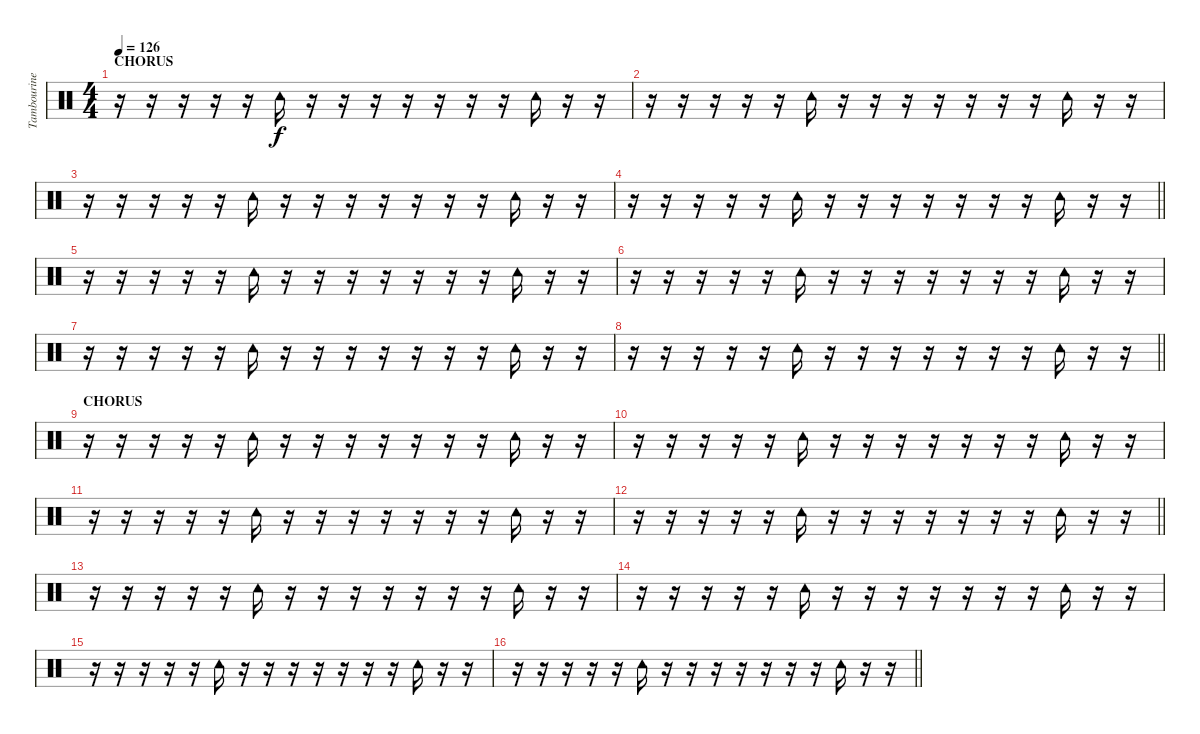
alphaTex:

\track ("Tambourine" "Tambourine") {instrument percussion}
\staff {score}
\articulation defaults
\ts (4 4)
\section ("" "CHORUS")
\tempo 126
\clef neutral
\ks c
r.16{dy f} r.16 r.16 r.16 r.16 "Tambourine (hit)".16 r.16 r.16 r.16 r.16 r.16 r.16 r.16 "Tambourine (hit)".16 r.16 r.16 |
r.16 r.16 r.16 r.16 r.16 "Tambourine (hit)".16 r.16 r.16 r.16 r.16 r.16 r.16 r.16 "Tambourine (hit)".16 r.16 r.16 |
r.16 r.16 r.16 r.16 r.16 "Tambourine (hit)".16 r.16 r.16 r.16 r.16 r.16 r.16 r.16 "Tambourine (hit)".16 r.16 r.16 |
\barLineRight lightlight
r.16 r.16 r.16 r.16 r.16 "Tambourine (hit)".16 r.16 r.16 r.16 r.16 r.16 r.16 r.16 "Tambourine (hit)".16 r.16 r.16 |
r.16 r.16 r.16 r.16 r.16 "Tambourine (hit)".16 r.16 r.16 r.16 r.16 r.16 r.16 r.16 "Tambourine (hit)".16 r.16 r.16 |
r.16 r.16 r.16 r.16 r.16 "Tambourine (hit)".16 r.16 r.16 r.16 r.16 r.16 r.16 r.16 "Tambourine (hit)".16 r.16 r.16 |
r.16 r.16 r.16 r.16 r.16 "Tambourine (hit)".16 r.16 r.16 r.16 r.16 r.16 r.16 r.16 "Tambourine (hit)".16 r.16 r.16 |
\barLineRight lightlight
r.16 r.16 r.16 r.16 r.16 "Tambourine (hit)".16 r.16 r.16 r.16 r.16 r.16 r.16 r.16 "Tambourine (hit)".16 r.16 r.16 |
\section ("" "CHORUS")
r.16 r.16 r.16 r.16 r.16 "Tambourine (hit)".16 r.16 r.16 r.16 r.16 r.16 r.16 r.16 "Tambourine (hit)".16 r.16 r.16 |
r.16 r.16 r.16 r.16 r.16 "Tambourine (hit)".16 r.16 r.16 r.16 r.16 r.16 r.16 r.16 "Tambourine (hit)".16 r.16 r.16 |
r.16 r.16 r.16 r.16 r.16 "Tambourine (hit)".16 r.16 r.16 r.16 r.16 r.16 r.16 r.16 "Tambourine (hit)".16 r.16 r.16 |
\barLineRight lightlight
r.16 r.16 r.16 r.16 r.16 "Tambourine (hit)".16 r.16 r.16 r.16 r.16 r.16 r.16 r.16 "Tambourine (hit)".16 r.16 r.16 |
r.16 r.16 r.16 r.16 r.16 "Tambourine (hit)".16 r.16 r.16 r.16 r.16 r.16 r.16 r.16 "Tambourine (hit)".16 r.16 r.16 |
r.16 r.16 r.16 r.16 r.16 "Tambourine (hit)".16 r.16 r.16 r.16 r.16 r.16 r.16 r.16 "Tambourine (hit)".16 r.16 r.16 |
r.16 r.16 r.16 r.16 r.16 "Tambourine (hit)".16 r.16 r.16 r.16 r.16 r.16 r.16 r.16 "Tambourine (hit)".16 r.16 r.16 |
\barLineRight lightlight
r.16 r.16 r.16 r.16 r.16 "Tambourine (hit)".16 r.16 r.16 r.16 r.16 r.16 r.16 r.16 "Tambourine (hit)".16 r.16 r.16
